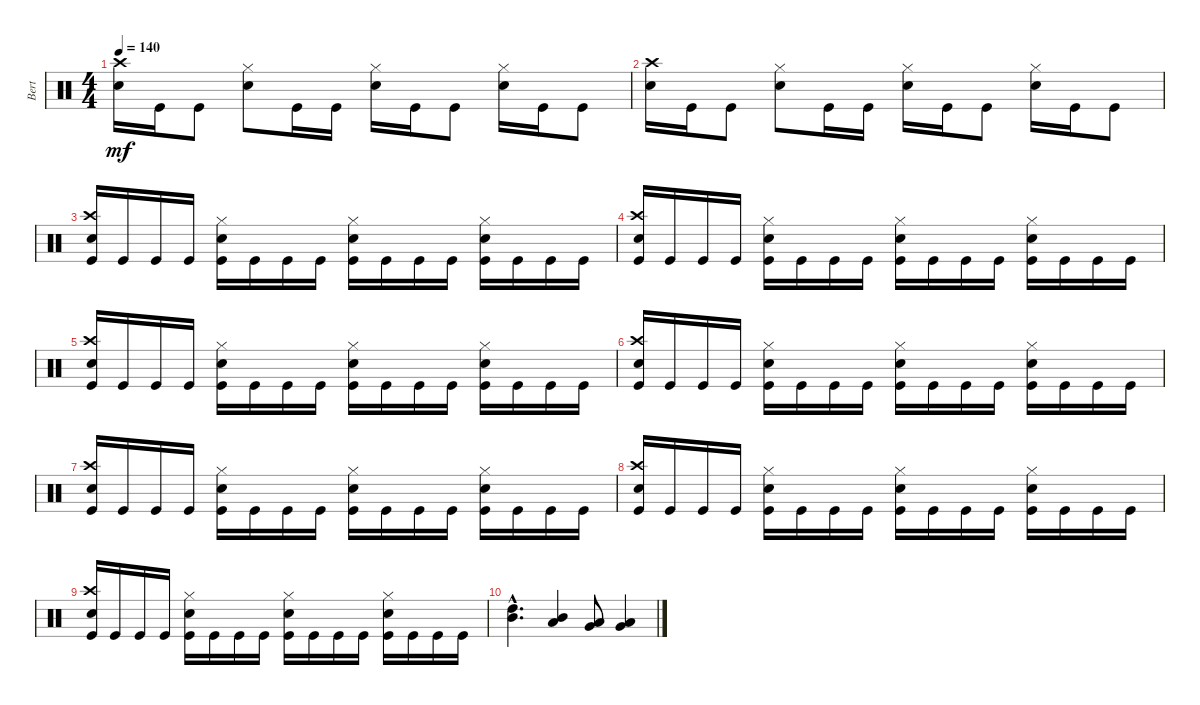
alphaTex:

\track ("Bert" "Bert") {instrument percussion}
\staff {score}
\articulation defaults
\ts (4 4)
\tempo 140
\clef neutral
\ks c
("Electric Snare (hit)" "Crash high (hit)").16{dy mf} "Kick (hit)".16 "Kick (hit)".8 ("Electric Snare (hit)" "Hi-Hat (closed)").8 "Kick (hit)".16 "Kick (hit)".16 ("Hi-Hat (closed)" "Electric Snare (hit)").16 "Kick (hit)".16 "Kick (hit)".8 ("Hi-Hat (closed)" "Electric Snare (hit)").16 "Kick (hit)".16 "Kick (hit)".8 |
("Electric Snare (hit)" "Crash high (hit)").16 "Kick (hit)".16 "Kick (hit)".8 ("Hi-Hat (closed)" "Electric Snare (hit)").8 "Kick (hit)".16 "Kick (hit)".16 ("Hi-Hat (closed)" "Electric Snare (hit)").16 "Kick (hit)".16 "Kick (hit)".8 ("Electric Snare (hit)" "Hi-Hat (closed)").16 "Kick (hit)".16 "Kick (hit)".8 |
("Crash high (hit)" "Electric Snare (hit)" "Kick (hit)").16 "Kick (hit)".16 "Kick (hit)".16 "Kick (hit)".16 ("Hi-Hat (closed)" "Electric Snare (hit)" "Kick (hit)").16 "Kick (hit)".16 "Kick (hit)".16 "Kick (hit)".16 ("Hi-Hat (closed)" "Kick (hit)" "Electric Snare (hit)").16 "Kick (hit)".16 "Kick (hit)".16 "Kick (hit)".16 ("Hi-Hat (closed)" "Electric Snare (hit)" "Kick (hit)").16 "Kick (hit)".16 "Kick (hit)".16 "Kick (hit)".16 |
("Crash high (hit)" "Electric Snare (hit)" "Kick (hit)").16 "Kick (hit)".16 "Kick (hit)".16 "Kick (hit)".16 ("Hi-Hat (closed)" "Kick (hit)" "Electric Snare (hit)").16 "Kick (hit)".16 "Kick (hit)".16 "Kick (hit)".16 ("Electric Snare (hit)" "Kick (hit)" "Hi-Hat (closed)").16 "Kick (hit)".16 "Kick (hit)".16 "Kick (hit)".16 ("Kick (hit)" "Hi-Hat (closed)" "Electric Snare (hit)").16 "Kick (hit)".16 "Kick (hit)".16 "Kick (hit)".16 |
("Kick (hit)" "Electric Snare (hit)" "Crash high (hit)").16 "Kick (hit)".16 "Kick (hit)".16 "Kick (hit)".16 ("Kick (hit)" "Hi-Hat (closed)" "Electric Snare (hit)").16 "Kick (hit)".16 "Kick (hit)".16 "Kick (hit)".16 ("Hi-Hat (closed)" "Kick (hit)" "Electric Snare (hit)").16 "Kick (hit)".16 "Kick (hit)".16 "Kick (hit)".16 ("Hi-Hat (closed)" "Electric Snare (hit)" "Kick (hit)").16 "Kick (hit)".16 "Kick (hit)".16 "Kick (hit)".16 |
("Kick (hit)" "Electric Snare (hit)" "Crash high (hit)").16 "Kick (hit)".16 "Kick (hit)".16 "Kick (hit)".16 ("Kick (hit)" "Hi-Hat (closed)" "Electric Snare (hit)").16 "Kick (hit)".16 "Kick (hit)".16 "Kick (hit)".16 ("Hi-Hat (closed)" "Kick (hit)" "Electric Snare (hit)").16 "Kick (hit)".16 "Kick (hit)".16 "Kick (hit)".16 ("Hi-Hat (closed)" "Electric Snare (hit)" "Kick (hit)").16 "Kick (hit)".16 "Kick (hit)".16 "Kick (hit)".16 |
("Kick (hit)" "Electric Snare (hit)" "Crash high (hit)").16 "Kick (hit)".16 "Kick (hit)".16 "Kick (hit)".16 ("Hi-Hat (closed)" "Electric Snare (hit)" "Kick (hit)").16 "Kick (hit)".16 "Kick (hit)".16 "Kick (hit)".16 ("Kick (hit)" "Hi-Hat (closed)" "Electric Snare (hit)").16 "Kick (hit)".16 "Kick (hit)".16 "Kick (hit)".16 ("Electric Snare (hit)" "Kick (hit)" "Hi-Hat (closed)").16 "Kick (hit)".16 "Kick (hit)".16 "Kick (hit)".16 |
("Kick (hit)" "Electric Snare (hit)" "Crash high (hit)").16 "Kick (hit)".16 "Kick (hit)".16 "Kick (hit)".16 ("Hi-Hat (closed)" "Kick (hit)" "Electric Snare (hit)").16 "Kick (hit)".16 "Kick (hit)".16 "Kick (hit)".16 ("Electric Snare (hit)" "Hi-Hat (closed)" "Kick (hit)").16 "Kick (hit)".16 "Kick (hit)".16 "Kick (hit)".16 ("Kick (hit)" "Hi-Hat (closed)" "Electric Snare (hit)").16 "Kick (hit)".16 "Kick (hit)".16 "Kick (hit)".16 |
("Kick (hit)" "Electric Snare (hit)" "Crash high (hit)").16 "Kick (hit)".16 "Kick (hit)".16 "Kick (hit)".16 ("Kick (hit)" "Hi-Hat (closed)" "Electric Snare (hit)").16 "Kick (hit)".16 "Kick (hit)".16 "Kick (hit)".16 ("Hi-Hat (closed)" "Kick (hit)" "Electric Snare (hit)").16 "Kick (hit)".16 "Kick (hit)".16 "Kick (hit)".16 ("Hi-Hat (closed)" "Electric Snare (hit)" "Kick (hit)").16 "Kick (hit)".16 "Kick (hit)".16 "Kick (hit)".16 |
("Mid Tom (hit)"{hac} "High Tom (hit)"{hac}).4{d} ("Low Tom (hit)" "Mid Tom (hit)").4 ("Very Low Tom (hit)" "Low Tom (hit)").8 ("Low Tom (hit)" "Very Low Tom (hit)").4
